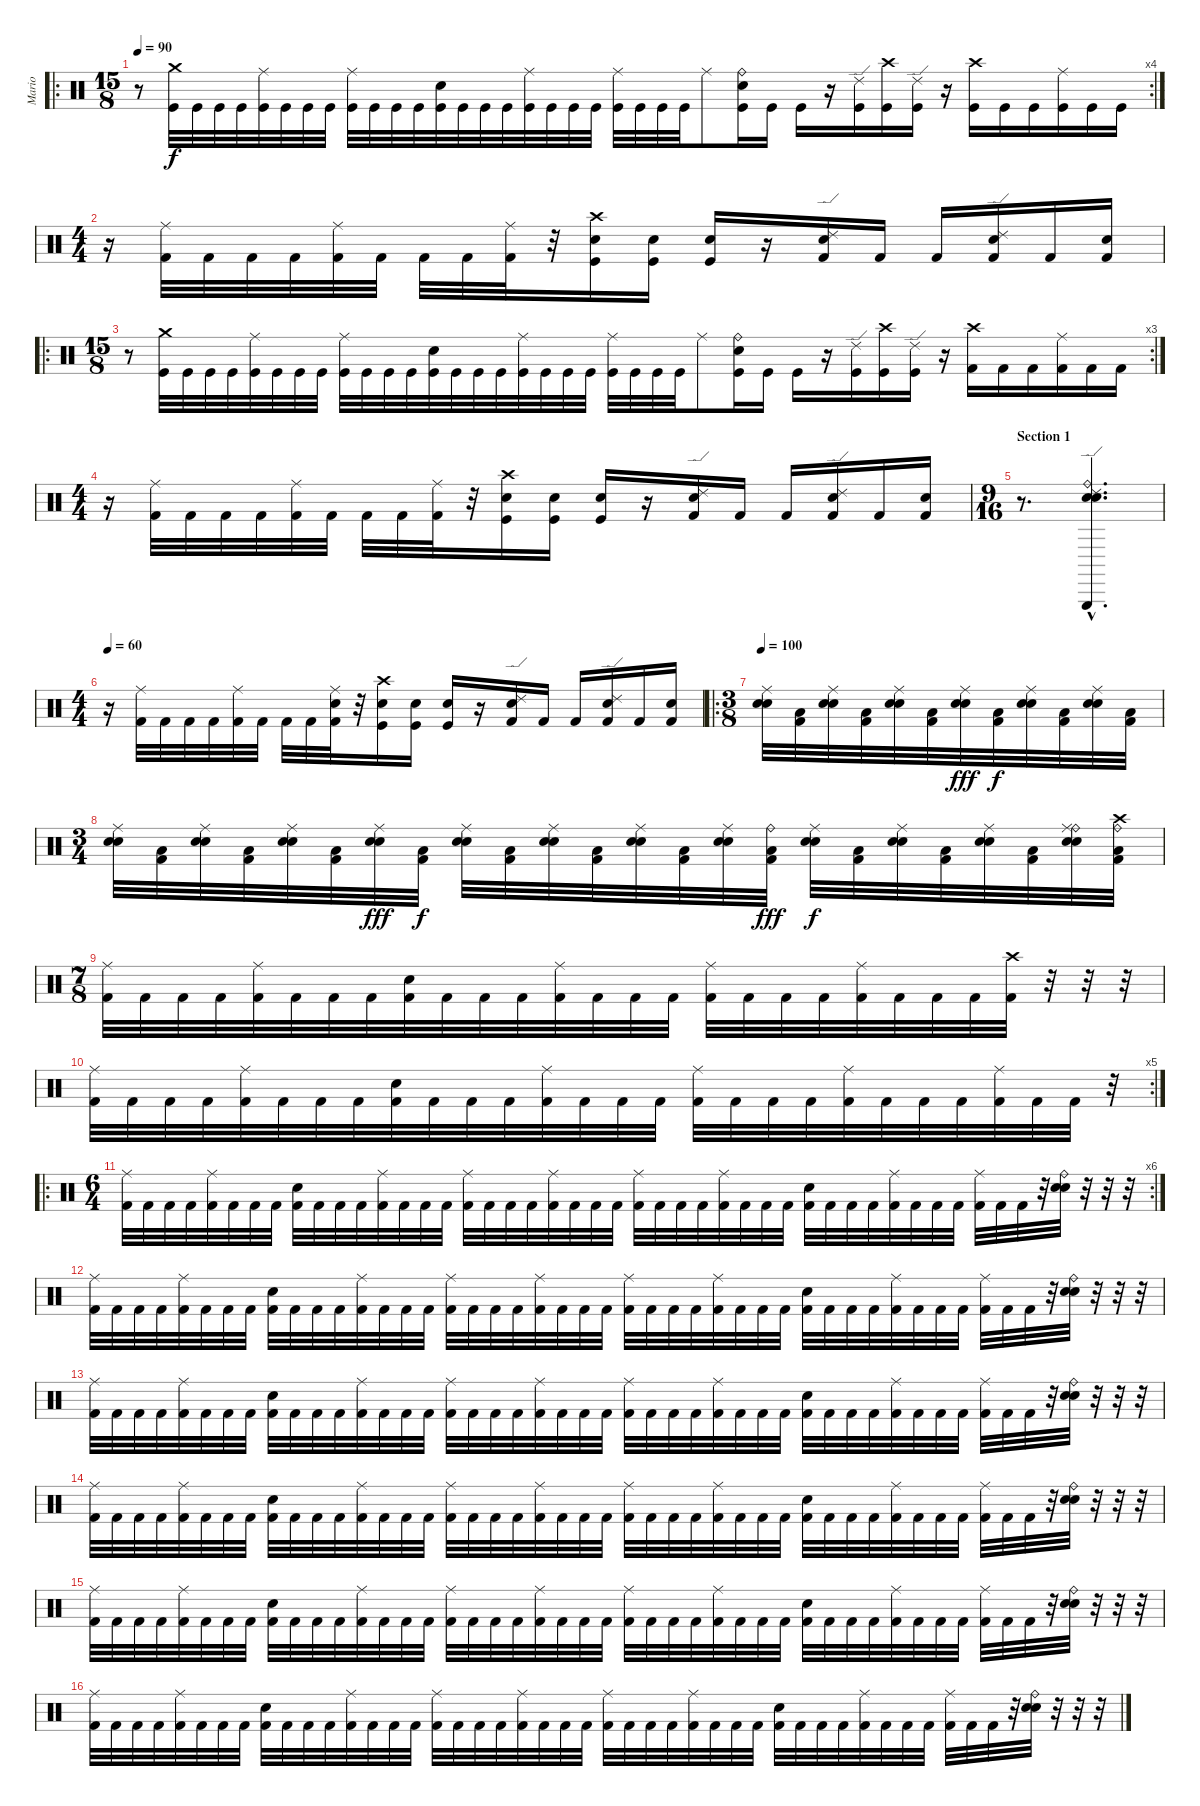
\track ("Mario" "Mario") {instrument percussion}
\staff {score}
\articulation defaults
\ro
\rc 4
\ts (15 8)
\tempo 90
\clef neutral
\ks c
r.8{dy fff} ("Crash medium (hit)" "Kick (hit)").32{dy f} "Kick (hit)".32 "Kick (hit)".32 "Kick (hit)".32 ("Ride (middle)" "Kick (hit)").32 "Kick (hit)".32 "Kick (hit)".32 "Kick (hit)".32 ("Ride (middle)" "Kick (hit)").32 "Kick (hit)".32 "Kick (hit)".32 "Kick (hit)".32 ("Electric Snare (hit)" "Kick (hit)").32 "Kick (hit)".32 "Kick (hit)".32 "Kick (hit)".32 ("Ride (middle)" "Kick (hit)").32 "Kick (hit)".32 "Kick (hit)".32 "Kick (hit)".32 ("Ride (middle)" "Kick (hit)").32 "Kick (hit)".32 "Kick (hit)".32 "Kick (hit)".32 "Ride (middle)".8 ("Ride (bell)" "Electric Snare (hit)" "Kick (hit)").16 "Kick (hit)".16 "Kick (hit)".16 r.16 ("Ride (edge) 2" "Kick (hit)").16 ("Crash high (hit)" "Kick (hit)").16 ("Ride (edge) 2" "Kick (hit)").16 r.16 ("Crash high (hit)" "Kick (hit)").16 "Kick (hit)".16 "Kick (hit)".16 ("Ride (middle)" "Kick (hit)").16 "Kick (hit)".16 "Kick (hit)".16 |
\ts (4 4)
r.16 ("Ride (middle)" "Kick (hit) 2").32 "Kick (hit) 2".32 "Kick (hit) 2".32 "Kick (hit) 2".32 ("Ride (middle)" "Kick (hit) 2").32 "Kick (hit) 2".32 "Kick (hit) 2".32 "Kick (hit) 2".32 ("Ride (middle)" "Kick (hit) 2").32 r.32 ("Crash high (hit)" "Kick (hit)" "Snare (hit) 2").16 ("Kick (hit)" "Snare (hit) 2").16 ("Kick (hit)" "Snare (hit) 2").16 r.16 ("Ride (edge) 2" "Electric Snare (hit)" "Kick (hit) 2").16 "Kick (hit) 2".16 "Kick (hit) 2".16 ("Ride (edge) 2" "Electric Snare (hit)" "Kick (hit) 2").16 "Kick (hit) 2".16 ("Electric Snare (hit)" "Kick (hit) 2").16 |
\ro
\rc 3
\ts (15 8)
r.8 ("Crash medium (hit)" "Kick (hit)").32 "Kick (hit)".32 "Kick (hit)".32 "Kick (hit)".32 ("Ride (middle)" "Kick (hit)").32 "Kick (hit)".32 "Kick (hit)".32 "Kick (hit)".32 ("Ride (middle)" "Kick (hit)").32 "Kick (hit)".32 "Kick (hit)".32 "Kick (hit)".32 ("Electric Snare (hit)" "Kick (hit)").32 "Kick (hit)".32 "Kick (hit)".32 "Kick (hit)".32 ("Ride (middle)" "Kick (hit)").32 "Kick (hit)".32 "Kick (hit)".32 "Kick (hit)".32 ("Ride (middle)" "Kick (hit)").32 "Kick (hit)".32 "Kick (hit)".32 "Kick (hit)".32 "Ride (middle)".8 ("Ride (bell)" "Electric Snare (hit)" "Kick (hit)").16 "Kick (hit)".16 "Kick (hit)".16 r.16 ("Ride (edge) 2" "Kick (hit)").16 ("Crash high (hit)" "Kick (hit)").16 ("Ride (edge) 2" "Kick (hit)").16 r.16 ("Crash high (hit)" "Kick (hit) 2").16 "Kick (hit) 2".16 "Kick (hit) 2".16 ("Ride (middle)" "Kick (hit) 2").16 "Kick (hit) 2".16 "Kick (hit) 2".16 |
\ts (4 4)
r.16 ("Ride (middle)" "Kick (hit) 2").32 "Kick (hit) 2".32 "Kick (hit) 2".32 "Kick (hit) 2".32 ("Ride (middle)" "Kick (hit) 2").32 "Kick (hit) 2".32 "Kick (hit) 2".32 "Kick (hit) 2".32 ("Ride (middle)" "Kick (hit) 2").32 r.32 ("Crash high (hit)" "Kick (hit)" "Snare (hit) 2").16 ("Kick (hit)" "Snare (hit) 2").16 ("Kick (hit)" "Snare (hit) 2").16 r.16 ("Ride (edge) 2" "Electric Snare (hit)" "Kick (hit) 2").16 "Kick (hit) 2".16 "Kick (hit) 2".16 ("Ride (edge) 2" "Electric Snare (hit)" "Kick (hit) 2").16 "Kick (hit) 2".16 ("Electric Snare (hit)" "Kick (hit) 2").16 |
\ts (9 16)
\section ("" "Section 1")
r.8{d} ("Triangle (hit)"{hac} "Snare (hit) 2"{hac} "Electric Snare (hit)"{hac} "Ride (edge) 2"{hac} "Ride (bell)"{hac}).4{d} |
\ts (4 4)
\tempo 60
r.16 ("Ride (middle)" "Kick (hit) 2").32 "Kick (hit) 2".32 "Kick (hit) 2".32 "Kick (hit) 2".32 ("Ride (middle)" "Kick (hit) 2").32 "Kick (hit) 2".32 "Kick (hit) 2".32 "Kick (hit) 2".32 ("Ride (middle)" "Electric Snare (hit)" "Kick (hit) 2").32 r.32 ("Crash high (hit)" "Kick (hit)" "Snare (hit) 2").16 ("Kick (hit)" "Snare (hit) 2").16 ("Kick (hit)" "Snare (hit) 2").16 r.16 ("Ride (edge) 2" "Electric Snare (hit)" "Kick (hit) 2").16 "Kick (hit) 2".16 "Kick (hit) 2".16 ("Ride (edge) 2" "Electric Snare (hit)" "Kick (hit) 2").16 "Kick (hit) 2".16 ("Electric Snare (hit)" "Kick (hit) 2").16 |
\ro
\ts (3 8)
\tempo 100
("Ride (middle)" "Electric Snare (hit)" "Snare (hit) 2").32 ("Low Tom (hit)" "Kick (hit) 2").32 ("Ride (middle)" "Electric Snare (hit)" "Snare (hit) 2").32 ("Low Tom (hit)" "Kick (hit) 2").32 ("Ride (middle)" "Electric Snare (hit)" "Snare (hit) 2").32 ("Low Tom (hit)" "Kick (hit) 2").32 ("Ride (middle)" "Electric Snare (hit)" "Snare (hit) 2").32{dy fff} ("Low Tom (hit)" "Kick (hit) 2").32{dy f} ("Ride (middle)" "Electric Snare (hit)" "Snare (hit) 2").32 ("Low Tom (hit)" "Kick (hit) 2").32 ("Ride (middle)" "Electric Snare (hit)" "Snare (hit) 2").32 ("Low Tom (hit)" "Kick (hit) 2").32 |
\ts (3 4)
("Ride (middle)" "Electric Snare (hit)" "Snare (hit) 2").32 ("Low Tom (hit)" "Kick (hit) 2").32 ("Ride (middle)" "Electric Snare (hit)" "Snare (hit) 2").32 ("Low Tom (hit)" "Kick (hit) 2").32 ("Ride (middle)" "Electric Snare (hit)" "Snare (hit) 2").32 ("Low Tom (hit)" "Kick (hit) 2").32 ("Ride (middle)" "Electric Snare (hit)" "Snare (hit) 2").32{dy fff} ("Low Tom (hit)" "Kick (hit) 2").32{dy f} ("Ride (middle)" "Electric Snare (hit)" "Snare (hit) 2").32 ("Low Tom (hit)" "Kick (hit) 2").32 ("Ride (middle)" "Electric Snare (hit)" "Snare (hit) 2").32 ("Low Tom (hit)" "Kick (hit) 2").32 ("Ride (middle)" "Electric Snare (hit)" "Snare (hit) 2").32 ("Low Tom (hit)" "Kick (hit) 2").32 ("Ride (middle)" "Electric Snare (hit)" "Snare (hit) 2").32 ("Ride (bell)" "Low Tom (hit)" "Kick (hit) 2").32{dy fff} ("Ride (middle)" "Electric Snare (hit)" "Snare (hit) 2").32{dy f} ("Low Tom (hit)" "Kick (hit) 2").32 ("Ride (middle)" "Electric Snare (hit)" "Snare (hit) 2").32 ("Low Tom (hit)" "Kick (hit) 2").32 ("Ride (middle)" "Electric Snare (hit)" "Snare (hit) 2").32 ("Low Tom (hit)" "Kick (hit) 2").32 ("Ride (bell)" "Ride (middle)" "Electric Snare (hit)" "Snare (hit) 2").32 ("Ride (bell)" "Crash high (hit)" "Low Tom (hit)" "Kick (hit) 2").32 |
\ts (7 8)
("Ride (middle)" "Kick (hit) 2").32 "Kick (hit) 2".32 "Kick (hit) 2".32 "Kick (hit) 2".32 ("Ride (middle)" "Kick (hit) 2").32 "Kick (hit) 2".32 "Kick (hit) 2".32 "Kick (hit) 2".32 ("Electric Snare (hit)" "Kick (hit) 2").32 "Kick (hit) 2".32 "Kick (hit) 2".32 "Kick (hit) 2".32 ("Ride (middle)" "Kick (hit) 2").32 "Kick (hit) 2".32 "Kick (hit) 2".32 "Kick (hit) 2".32 ("Ride (middle)" "Kick (hit) 2").32 "Kick (hit) 2".32 "Kick (hit) 2".32 "Kick (hit) 2".32 ("Ride (middle)" "Kick (hit) 2").32 "Kick (hit) 2".32 "Kick (hit) 2".32 "Kick (hit) 2".32 ("Crash high (hit)" "Kick (hit) 2").32 r.32 r.32 r.32 |
\rc 5
("Ride (middle)" "Kick (hit) 2").32 "Kick (hit) 2".32 "Kick (hit) 2".32 "Kick (hit) 2".32 ("Ride (middle)" "Kick (hit) 2").32 "Kick (hit) 2".32 "Kick (hit) 2".32 "Kick (hit) 2".32 ("Electric Snare (hit)" "Kick (hit) 2").32 "Kick (hit) 2".32 "Kick (hit) 2".32 "Kick (hit) 2".32 ("Ride (middle)" "Kick (hit) 2").32 "Kick (hit) 2".32 "Kick (hit) 2".32 "Kick (hit) 2".32 ("Ride (middle)" "Kick (hit) 2").32 "Kick (hit) 2".32 "Kick (hit) 2".32 "Kick (hit) 2".32 ("Ride (middle)" "Kick (hit) 2").32 "Kick (hit) 2".32 "Kick (hit) 2".32 "Kick (hit) 2".32 ("Ride (middle)" "Kick (hit) 2").32 "Kick (hit) 2".32 "Kick (hit) 2".32 r.32 |
\ro
\rc 6
\ts (6 4)
("Ride (middle)" "Kick (hit) 2").32 "Kick (hit) 2".32 "Kick (hit) 2".32 "Kick (hit) 2".32 ("Ride (middle)" "Kick (hit) 2").32 "Kick (hit) 2".32 "Kick (hit) 2".32 "Kick (hit) 2".32 ("Electric Snare (hit)" "Kick (hit) 2").32 "Kick (hit) 2".32 "Kick (hit) 2".32 "Kick (hit) 2".32 ("Ride (middle)" "Kick (hit) 2").32 "Kick (hit) 2".32 "Kick (hit) 2".32 "Kick (hit) 2".32 ("Ride (middle)" "Kick (hit) 2").32 "Kick (hit) 2".32 "Kick (hit) 2".32 "Kick (hit) 2".32 ("Ride (middle)" "Kick (hit) 2").32 "Kick (hit) 2".32 "Kick (hit) 2".32 "Kick (hit) 2".32 ("Ride (middle)" "Kick (hit) 2").32 "Kick (hit) 2".32 "Kick (hit) 2".32 "Kick (hit) 2".32 ("Ride (middle)" "Kick (hit) 2").32 "Kick (hit) 2".32 "Kick (hit) 2".32 "Kick (hit) 2".32 ("Electric Snare (hit)" "Kick (hit) 2").32 "Kick (hit) 2".32 "Kick (hit) 2".32 "Kick (hit) 2".32 ("Ride (middle)" "Kick (hit) 2").32 "Kick (hit) 2".32 "Kick (hit) 2".32 "Kick (hit) 2".32 ("Ride (middle)" "Kick (hit) 2").32 "Kick (hit) 2".32 "Kick (hit) 2".32 r.32 ("Snare (hit) 2" "Electric Snare (hit)" "Ride (bell)").32 r.32 r.32 r.32 |
("Ride (middle)" "Kick (hit) 2").32 "Kick (hit) 2".32 "Kick (hit) 2".32 "Kick (hit) 2".32 ("Ride (middle)" "Kick (hit) 2").32 "Kick (hit) 2".32 "Kick (hit) 2".32 "Kick (hit) 2".32 ("Electric Snare (hit)" "Kick (hit) 2").32 "Kick (hit) 2".32 "Kick (hit) 2".32 "Kick (hit) 2".32 ("Ride (middle)" "Kick (hit) 2").32 "Kick (hit) 2".32 "Kick (hit) 2".32 "Kick (hit) 2".32 ("Ride (middle)" "Kick (hit) 2").32 "Kick (hit) 2".32 "Kick (hit) 2".32 "Kick (hit) 2".32 ("Ride (middle)" "Kick (hit) 2").32 "Kick (hit) 2".32 "Kick (hit) 2".32 "Kick (hit) 2".32 ("Ride (middle)" "Kick (hit) 2").32 "Kick (hit) 2".32 "Kick (hit) 2".32 "Kick (hit) 2".32 ("Ride (middle)" "Kick (hit) 2").32 "Kick (hit) 2".32 "Kick (hit) 2".32 "Kick (hit) 2".32 ("Electric Snare (hit)" "Kick (hit) 2").32 "Kick (hit) 2".32 "Kick (hit) 2".32 "Kick (hit) 2".32 ("Ride (middle)" "Kick (hit) 2").32 "Kick (hit) 2".32 "Kick (hit) 2".32 "Kick (hit) 2".32 ("Ride (middle)" "Kick (hit) 2").32 "Kick (hit) 2".32 "Kick (hit) 2".32 r.32 ("Snare (hit) 2" "Electric Snare (hit)" "Ride (bell)").32 r.32 r.32 r.32 |
("Ride (middle)" "Kick (hit) 2").32 "Kick (hit) 2".32 "Kick (hit) 2".32 "Kick (hit) 2".32 ("Ride (middle)" "Kick (hit) 2").32 "Kick (hit) 2".32 "Kick (hit) 2".32 "Kick (hit) 2".32 ("Electric Snare (hit)" "Kick (hit) 2").32 "Kick (hit) 2".32 "Kick (hit) 2".32 "Kick (hit) 2".32 ("Ride (middle)" "Kick (hit) 2").32 "Kick (hit) 2".32 "Kick (hit) 2".32 "Kick (hit) 2".32 ("Ride (middle)" "Kick (hit) 2").32 "Kick (hit) 2".32 "Kick (hit) 2".32 "Kick (hit) 2".32 ("Ride (middle)" "Kick (hit) 2").32 "Kick (hit) 2".32 "Kick (hit) 2".32 "Kick (hit) 2".32 ("Ride (middle)" "Kick (hit) 2").32 "Kick (hit) 2".32 "Kick (hit) 2".32 "Kick (hit) 2".32 ("Ride (middle)" "Kick (hit) 2").32 "Kick (hit) 2".32 "Kick (hit) 2".32 "Kick (hit) 2".32 ("Electric Snare (hit)" "Kick (hit) 2").32 "Kick (hit) 2".32 "Kick (hit) 2".32 "Kick (hit) 2".32 ("Ride (middle)" "Kick (hit) 2").32 "Kick (hit) 2".32 "Kick (hit) 2".32 "Kick (hit) 2".32 ("Ride (middle)" "Kick (hit) 2").32 "Kick (hit) 2".32 "Kick (hit) 2".32 r.32 ("Snare (hit) 2" "Electric Snare (hit)" "Ride (bell)").32 r.32 r.32 r.32 |
("Ride (middle)" "Kick (hit) 2").32 "Kick (hit) 2".32 "Kick (hit) 2".32 "Kick (hit) 2".32 ("Ride (middle)" "Kick (hit) 2").32 "Kick (hit) 2".32 "Kick (hit) 2".32 "Kick (hit) 2".32 ("Electric Snare (hit)" "Kick (hit) 2").32 "Kick (hit) 2".32 "Kick (hit) 2".32 "Kick (hit) 2".32 ("Ride (middle)" "Kick (hit) 2").32 "Kick (hit) 2".32 "Kick (hit) 2".32 "Kick (hit) 2".32 ("Ride (middle)" "Kick (hit) 2").32 "Kick (hit) 2".32 "Kick (hit) 2".32 "Kick (hit) 2".32 ("Ride (middle)" "Kick (hit) 2").32 "Kick (hit) 2".32 "Kick (hit) 2".32 "Kick (hit) 2".32 ("Ride (middle)" "Kick (hit) 2").32 "Kick (hit) 2".32 "Kick (hit) 2".32 "Kick (hit) 2".32 ("Ride (middle)" "Kick (hit) 2").32 "Kick (hit) 2".32 "Kick (hit) 2".32 "Kick (hit) 2".32 ("Electric Snare (hit)" "Kick (hit) 2").32 "Kick (hit) 2".32 "Kick (hit) 2".32 "Kick (hit) 2".32 ("Ride (middle)" "Kick (hit) 2").32 "Kick (hit) 2".32 "Kick (hit) 2".32 "Kick (hit) 2".32 ("Ride (middle)" "Kick (hit) 2").32 "Kick (hit) 2".32 "Kick (hit) 2".32 r.32 ("Snare (hit) 2" "Electric Snare (hit)" "Ride (bell)").32 r.32 r.32 r.32 |
("Ride (middle)" "Kick (hit) 2").32 "Kick (hit) 2".32 "Kick (hit) 2".32 "Kick (hit) 2".32 ("Ride (middle)" "Kick (hit) 2").32 "Kick (hit) 2".32 "Kick (hit) 2".32 "Kick (hit) 2".32 ("Electric Snare (hit)" "Kick (hit) 2").32 "Kick (hit) 2".32 "Kick (hit) 2".32 "Kick (hit) 2".32 ("Ride (middle)" "Kick (hit) 2").32 "Kick (hit) 2".32 "Kick (hit) 2".32 "Kick (hit) 2".32 ("Ride (middle)" "Kick (hit) 2").32 "Kick (hit) 2".32 "Kick (hit) 2".32 "Kick (hit) 2".32 ("Ride (middle)" "Kick (hit) 2").32 "Kick (hit) 2".32 "Kick (hit) 2".32 "Kick (hit) 2".32 ("Ride (middle)" "Kick (hit) 2").32 "Kick (hit) 2".32 "Kick (hit) 2".32 "Kick (hit) 2".32 ("Ride (middle)" "Kick (hit) 2").32 "Kick (hit) 2".32 "Kick (hit) 2".32 "Kick (hit) 2".32 ("Electric Snare (hit)" "Kick (hit) 2").32 "Kick (hit) 2".32 "Kick (hit) 2".32 "Kick (hit) 2".32 ("Ride (middle)" "Kick (hit) 2").32 "Kick (hit) 2".32 "Kick (hit) 2".32 "Kick (hit) 2".32 ("Ride (middle)" "Kick (hit) 2").32 "Kick (hit) 2".32 "Kick (hit) 2".32 r.32 ("Snare (hit) 2" "Electric Snare (hit)" "Ride (bell)").32 r.32 r.32 r.32 |
("Ride (middle)" "Kick (hit) 2").32 "Kick (hit) 2".32 "Kick (hit) 2".32 "Kick (hit) 2".32 ("Ride (middle)" "Kick (hit) 2").32 "Kick (hit) 2".32 "Kick (hit) 2".32 "Kick (hit) 2".32 ("Electric Snare (hit)" "Kick (hit) 2").32 "Kick (hit) 2".32 "Kick (hit) 2".32 "Kick (hit) 2".32 ("Ride (middle)" "Kick (hit) 2").32 "Kick (hit) 2".32 "Kick (hit) 2".32 "Kick (hit) 2".32 ("Ride (middle)" "Kick (hit) 2").32 "Kick (hit) 2".32 "Kick (hit) 2".32 "Kick (hit) 2".32 ("Ride (middle)" "Kick (hit) 2").32 "Kick (hit) 2".32 "Kick (hit) 2".32 "Kick (hit) 2".32 ("Ride (middle)" "Kick (hit) 2").32 "Kick (hit) 2".32 "Kick (hit) 2".32 "Kick (hit) 2".32 ("Ride (middle)" "Kick (hit) 2").32 "Kick (hit) 2".32 "Kick (hit) 2".32 "Kick (hit) 2".32 ("Electric Snare (hit)" "Kick (hit) 2").32 "Kick (hit) 2".32 "Kick (hit) 2".32 "Kick (hit) 2".32 ("Ride (middle)" "Kick (hit) 2").32 "Kick (hit) 2".32 "Kick (hit) 2".32 "Kick (hit) 2".32 ("Ride (middle)" "Kick (hit) 2").32 "Kick (hit) 2".32 "Kick (hit) 2".32 r.32 ("Snare (hit) 2" "Electric Snare (hit)" "Ride (bell)").32 r.32 r.32 r.32
